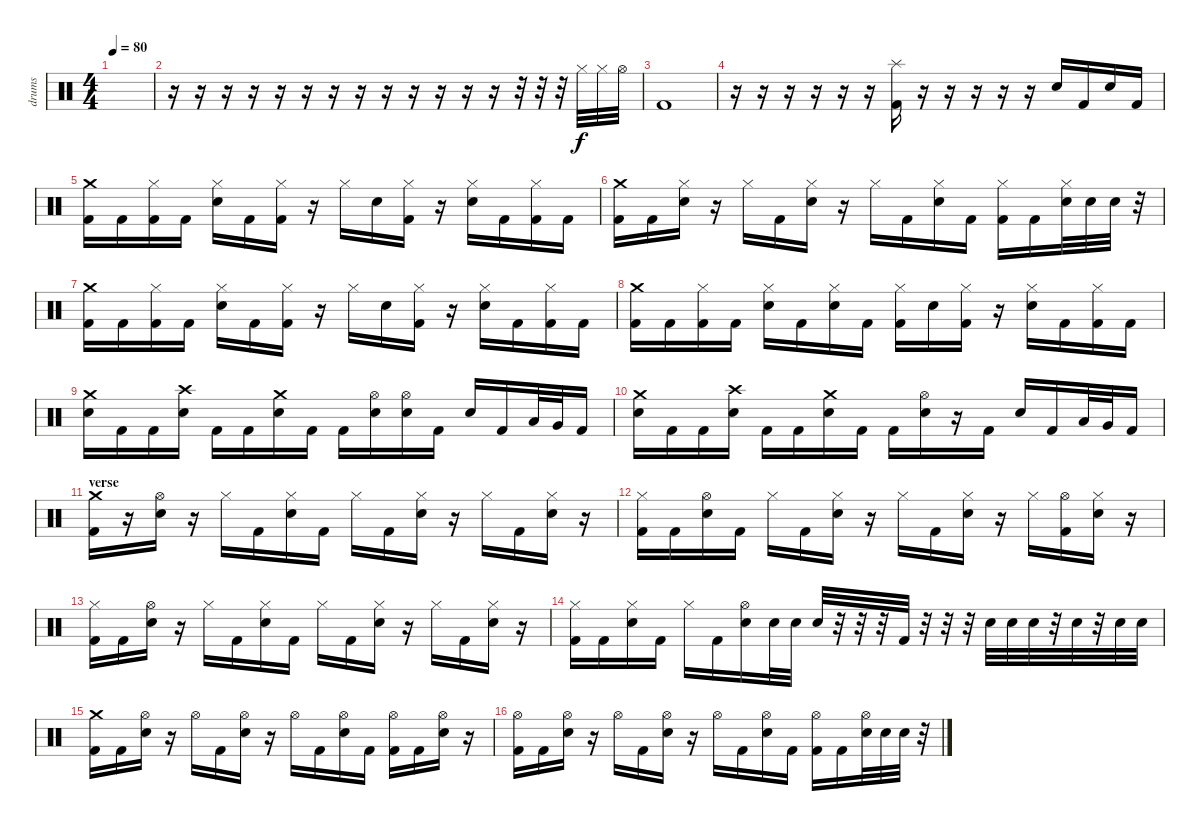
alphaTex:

\track ("drums" "drums") {instrument percussion}
\staff {score}
\articulation defaults
\ts (4 4)
\tempo 80
\clef neutral
\ks c
|
r.16 r.16 r.16 r.16 r.16 r.16 r.16 r.16 r.16 r.16 r.16 r.16 r.16 r.32 r.32 r.32 "Hi-Hat (closed)".32 "Hi-Hat (closed)".32 "Hi-Hat (open)".32 |
"Kick (hit) 2".1 |
r.16 r.16 r.16 r.16 r.16 r.16 ("Splash (hit)" "Kick (hit) 2").16 r.16 r.16 r.16 r.16 r.16 "Electric Snare (hit)".16 "Kick (hit) 2".16 "Electric Snare (hit)".16 "Kick (hit) 2".16 |
("Crash medium (hit)" "Kick (hit) 2").16 "Kick (hit) 2".16 ("Hi-Hat (closed)" "Kick (hit) 2").16 "Kick (hit) 2".16 ("Hi-Hat (closed)" "Electric Snare (hit)").16 "Kick (hit) 2".16 ("Hi-Hat (closed)" "Kick (hit) 2").16 r.16 "Hi-Hat (closed)".16 "Electric Snare (hit)".16 ("Hi-Hat (closed)" "Kick (hit) 2").16 r.16 ("Hi-Hat (closed)" "Electric Snare (hit)").16 "Kick (hit) 2".16 ("Hi-Hat (closed)" "Kick (hit) 2").16 "Kick (hit) 2".16 |
("Crash medium (hit)" "Kick (hit) 2").16 "Kick (hit) 2".16 ("Hi-Hat (closed)" "Electric Snare (hit)").16 r.16 "Hi-Hat (closed)".16 "Kick (hit) 2".16 ("Hi-Hat (closed)" "Electric Snare (hit)").16 r.16 "Hi-Hat (closed)".16 "Kick (hit) 2".16 ("Hi-Hat (closed)" "Electric Snare (hit)").16 "Kick (hit) 2".16 ("Hi-Hat (closed)" "Kick (hit) 2").16 "Kick (hit) 2".16 ("Hi-Hat (closed)" "Electric Snare (hit)").32 "Electric Snare (hit)".32 "Electric Snare (hit)".32 r.32 |
("Crash medium (hit)" "Kick (hit) 2").16 "Kick (hit) 2".16 ("Hi-Hat (closed)" "Kick (hit) 2").16 "Kick (hit) 2".16 ("Hi-Hat (closed)" "Electric Snare (hit)").16 "Kick (hit) 2".16 ("Hi-Hat (closed)" "Kick (hit) 2").16 r.16 "Hi-Hat (closed)".16 "Electric Snare (hit)".16 ("Hi-Hat (closed)" "Kick (hit) 2").16 r.16 ("Hi-Hat (closed)" "Electric Snare (hit)").16 "Kick (hit) 2".16 ("Hi-Hat (closed)" "Kick (hit) 2").16 "Kick (hit) 2".16 |
("Crash medium (hit)" "Kick (hit) 2").16 "Kick (hit) 2".16 ("Hi-Hat (closed)" "Kick (hit) 2").16 "Kick (hit) 2".16 ("Hi-Hat (closed)" "Electric Snare (hit)").16 "Kick (hit) 2".16 ("Hi-Hat (closed)" "Electric Snare (hit)").16 "Kick (hit) 2".16 ("Hi-Hat (closed)" "Kick (hit) 2").16 "Electric Snare (hit)".16 ("Hi-Hat (closed)" "Kick (hit) 2").16 r.16 ("Hi-Hat (closed)" "Electric Snare (hit)").16 "Kick (hit) 2".16 ("Hi-Hat (closed)" "Kick (hit) 2").16 "Kick (hit) 2".16 |
("Crash medium (hit)" "Electric Snare (hit)").16 "Kick (hit) 2".16 "Kick (hit) 2".16 ("Crash high (hit)" "Electric Snare (hit)").16 "Kick (hit) 2".16 "Kick (hit) 2".16 ("Crash medium (hit)" "Electric Snare (hit)").16 "Kick (hit) 2".16 "Kick (hit) 2".16 ("Hi-Hat (open)" "Electric Snare (hit)").16 ("Hi-Hat (open)" "Electric Snare (hit)").16 "Kick (hit) 2".16 "Electric Snare (hit)".16 "Kick (hit) 2".16 "Low Floor Tom (hit)".32 "Very Low Tom (hit)".32 "Kick (hit) 2".16 |
("Crash medium (hit)" "Electric Snare (hit)").16 "Kick (hit) 2".16 "Kick (hit) 2".16 ("Crash high (hit)" "Electric Snare (hit)").16 "Kick (hit) 2".16 "Kick (hit) 2".16 ("Crash medium (hit)" "Electric Snare (hit)").16 "Kick (hit) 2".16 "Kick (hit) 2".16 ("Hi-Hat (open)" "Electric Snare (hit)").16 r.16 "Kick (hit) 2".16 "Electric Snare (hit)".16 "Kick (hit) 2".16 "Low Floor Tom (hit)".32 "Very Low Tom (hit)".32 "Kick (hit) 2".16 |
\section ("" "verse")
("Crash medium (hit)" "Kick (hit) 2").16 r.16 ("Hi-Hat (open)" "Electric Snare (hit)").16 r.16 "Hi-Hat (closed)".16 "Kick (hit) 2".16 ("Hi-Hat (closed)" "Electric Snare (hit)").16 "Kick (hit) 2".16 "Hi-Hat (closed)".16 "Kick (hit) 2".16 ("Hi-Hat (closed)" "Electric Snare (hit)").16 r.16 "Hi-Hat (closed)".16 "Kick (hit) 2".16 ("Hi-Hat (closed)" "Electric Snare (hit)").16 r.16 |
("Hi-Hat (closed)" "Kick (hit) 2").16 "Kick (hit) 2".16 ("Hi-Hat (open)" "Electric Snare (hit)").16 "Kick (hit) 2".16 "Hi-Hat (closed)".16 "Kick (hit) 2".16 ("Hi-Hat (closed)" "Electric Snare (hit)").16 r.16 "Hi-Hat (closed)".16 "Kick (hit) 2".16 ("Hi-Hat (closed)" "Electric Snare (hit)").16 r.16 "Hi-Hat (closed)".16 ("Hi-Hat (open)" "Kick (hit) 2").16 ("Hi-Hat (closed)" "Electric Snare (hit)").16 r.16 |
("Hi-Hat (closed)" "Kick (hit) 2").16 "Kick (hit) 2".16 ("Hi-Hat (open)" "Electric Snare (hit)").16 r.16 "Hi-Hat (closed)".16 "Kick (hit) 2".16 ("Hi-Hat (closed)" "Electric Snare (hit)").16 "Kick (hit) 2".16 "Hi-Hat (closed)".16 "Kick (hit) 2".16 ("Hi-Hat (closed)" "Electric Snare (hit)").16 r.16 "Hi-Hat (closed)".16 "Kick (hit) 2".16 ("Hi-Hat (closed)" "Electric Snare (hit)").16 r.16 |
("Hi-Hat (closed)" "Kick (hit) 2").16 "Kick (hit) 2".16 ("Hi-Hat (closed)" "Electric Snare (hit)").16 "Kick (hit) 2".16 "Hi-Hat (closed)".16 "Kick (hit) 2".16 ("Hi-Hat (open)" "Electric Snare (hit)").16 "Electric Snare (hit)".32 "Electric Snare (hit)".32 "Electric Snare (hit)".32 r.32 r.32 r.32 "Kick (hit) 2".32 r.32 r.32 r.32 "Electric Snare (hit)".32 "Electric Snare (hit)".32 "Electric Snare (hit)".32 r.32 "Electric Snare (hit)".32 r.32 "Electric Snare (hit)".32 "Electric Snare (hit)".32 |
("Crash medium (hit)" "Kick (hit) 2").16 "Kick (hit) 2".16 ("Hi-Hat (open)" "Electric Snare (hit)").16 r.16 "Hi-Hat (open)".16 "Kick (hit) 2".16 ("Hi-Hat (open)" "Electric Snare (hit)").16 r.16 "Hi-Hat (open)".16 "Kick (hit) 2".16 ("Hi-Hat (open)" "Electric Snare (hit)").16 "Kick (hit) 2".16 ("Hi-Hat (open)" "Kick (hit) 2").16 "Kick (hit) 2".16 ("Hi-Hat (open)" "Electric Snare (hit)").16 r.16 |
("Hi-Hat (open)" "Kick (hit) 2").16 "Kick (hit) 2".16 ("Hi-Hat (open)" "Electric Snare (hit)").16 r.16 "Hi-Hat (open)".16 "Kick (hit) 2".16 ("Hi-Hat (open)" "Electric Snare (hit)").16 r.16 "Hi-Hat (open)".16 "Kick (hit) 2".16 ("Hi-Hat (open)" "Electric Snare (hit)").16 "Kick (hit) 2".16 ("Hi-Hat (open)" "Kick (hit) 2").16 "Kick (hit) 2".16 ("Hi-Hat (open)" "Electric Snare (hit)").32 "Electric Snare (hit)".32 "Electric Snare (hit)".32 r.32
